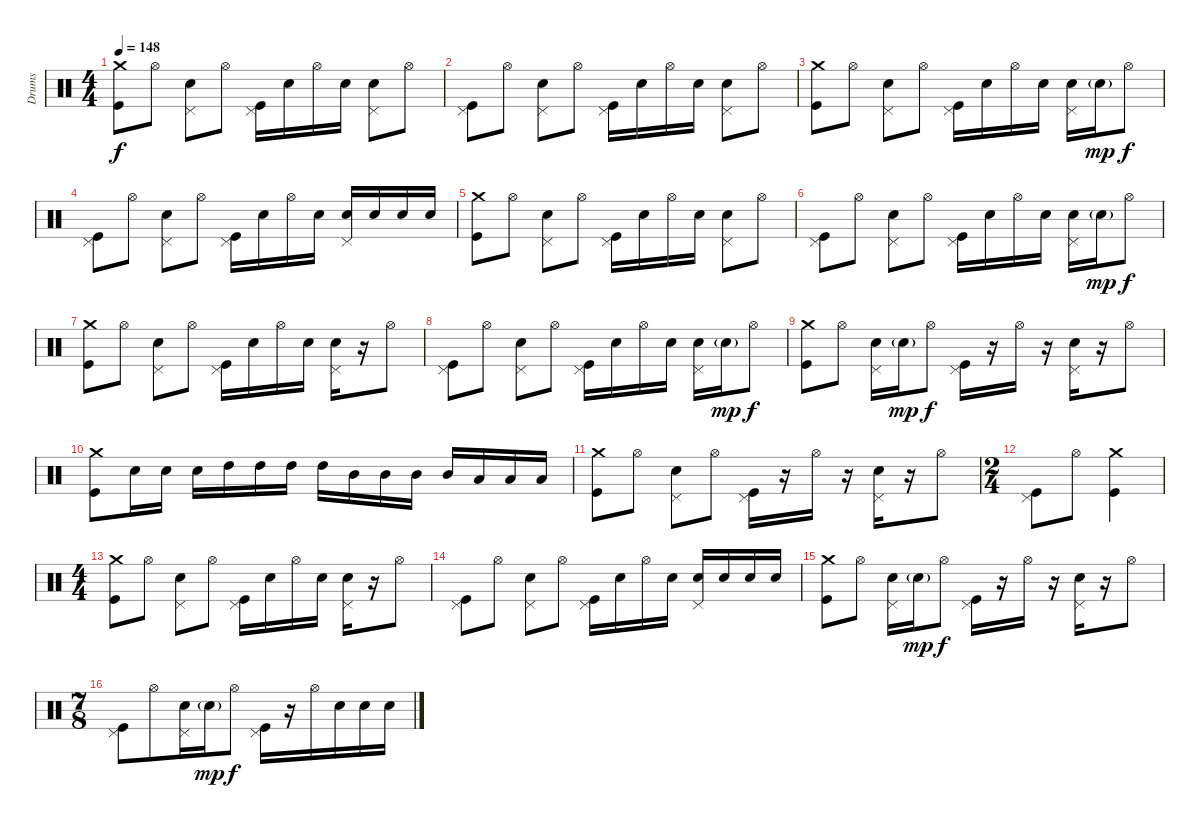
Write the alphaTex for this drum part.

\track ("Drums" "Drums") {instrument percussion}
\staff {score}
\articulation defaults
\ts (4 4)
\tempo 148
\clef neutral
\ks c
("Crash medium (hit)" "Kick (hit)").8{dy f} "Hi-Hat (open)".8 ("Pedal Hi-Hat (hit)" "Electric Snare (hit)").8 "Hi-Hat (open)".8 ("Pedal Hi-Hat (hit)" "Kick (hit)").16 "Electric Snare (hit)".16 "Hi-Hat (open)".16 "Electric Snare (hit)".16 ("Pedal Hi-Hat (hit)" "Electric Snare (hit)").8 "Hi-Hat (open)".8 |
("Pedal Hi-Hat (hit)" "Kick (hit)").8 "Hi-Hat (open)".8 ("Pedal Hi-Hat (hit)" "Electric Snare (hit)").8 "Hi-Hat (open)".8 ("Pedal Hi-Hat (hit)" "Kick (hit)").16 "Electric Snare (hit)".16 "Hi-Hat (open)".16 "Electric Snare (hit)".16 ("Pedal Hi-Hat (hit)" "Electric Snare (hit)").8 "Hi-Hat (open)".8 |
("Crash medium (hit)" "Kick (hit)").8 "Hi-Hat (open)".8 ("Pedal Hi-Hat (hit)" "Electric Snare (hit)").8 "Hi-Hat (open)".8 ("Pedal Hi-Hat (hit)" "Kick (hit)").16 "Electric Snare (hit)".16 "Hi-Hat (open)".16 "Electric Snare (hit)".16 ("Pedal Hi-Hat (hit)" "Electric Snare (hit)").16 "Electric Snare (hit)"{g}.16{dy mp} "Hi-Hat (open)".8{dy f} |
("Pedal Hi-Hat (hit)" "Kick (hit)").8 "Hi-Hat (open)".8 ("Pedal Hi-Hat (hit)" "Electric Snare (hit)").8 "Hi-Hat (open)".8 ("Pedal Hi-Hat (hit)" "Kick (hit)").16 "Electric Snare (hit)".16 "Hi-Hat (open)".16 "Electric Snare (hit)".16 ("Pedal Hi-Hat (hit)" "Electric Snare (hit)").16 "Electric Snare (hit)".16 "Electric Snare (hit)".16 "Electric Snare (hit)".16 |
("Crash medium (hit)" "Kick (hit)").8 "Hi-Hat (open)".8 ("Pedal Hi-Hat (hit)" "Electric Snare (hit)").8 "Hi-Hat (open)".8 ("Pedal Hi-Hat (hit)" "Kick (hit)").16 "Electric Snare (hit)".16 "Hi-Hat (open)".16 "Electric Snare (hit)".16 ("Pedal Hi-Hat (hit)" "Electric Snare (hit)").8 "Hi-Hat (open)".8 |
("Pedal Hi-Hat (hit)" "Kick (hit)").8 "Hi-Hat (open)".8 ("Pedal Hi-Hat (hit)" "Electric Snare (hit)").8 "Hi-Hat (open)".8 ("Pedal Hi-Hat (hit)" "Kick (hit)").16 "Electric Snare (hit)".16 "Hi-Hat (open)".16 "Electric Snare (hit)".16 ("Pedal Hi-Hat (hit)" "Electric Snare (hit)").16 "Electric Snare (hit)"{g}.16{dy mp} "Hi-Hat (open)".8{dy f} |
("Crash medium (hit)" "Kick (hit)").8 "Hi-Hat (open)".8 ("Pedal Hi-Hat (hit)" "Electric Snare (hit)").8 "Hi-Hat (open)".8 ("Pedal Hi-Hat (hit)" "Kick (hit)").16 "Electric Snare (hit)".16 "Hi-Hat (open)".16 "Electric Snare (hit)".16 ("Pedal Hi-Hat (hit)" "Electric Snare (hit)").16 r.16 "Hi-Hat (open)".8 |
("Pedal Hi-Hat (hit)" "Kick (hit)").8 "Hi-Hat (open)".8 ("Pedal Hi-Hat (hit)" "Electric Snare (hit)").8 "Hi-Hat (open)".8 ("Pedal Hi-Hat (hit)" "Kick (hit)").16 "Electric Snare (hit)".16 "Hi-Hat (open)".16 "Electric Snare (hit)".16 ("Pedal Hi-Hat (hit)" "Electric Snare (hit)").16 "Electric Snare (hit)"{g}.16{dy mp} "Hi-Hat (open)".8{dy f} |
("Crash medium (hit)" "Kick (hit)").8 "Hi-Hat (open)".8 ("Pedal Hi-Hat (hit)" "Electric Snare (hit)").16 "Electric Snare (hit)"{g}.16{dy mp} "Hi-Hat (open)".8{dy f} ("Pedal Hi-Hat (hit)" "Kick (hit)").16 r.16 "Hi-Hat (open)".16 r.16 ("Pedal Hi-Hat (hit)" "Electric Snare (hit)").16 r.16 "Hi-Hat (open)".8 |
("Crash medium (hit)" "Kick (hit)").8 "Electric Snare (hit)".16 "Electric Snare (hit)".16 "Electric Snare (hit)".16 "High Tom (hit)".16 "High Tom (hit)".16 "High Tom (hit)".16 "High Tom (hit)".16 "Mid Tom (hit)".16 "Mid Tom (hit)".16 "Mid Tom (hit)".16 "Mid Tom (hit)".16 "Low Tom (hit)".16 "Low Tom (hit)".16 "Low Tom (hit)".16 |
("Crash medium (hit)" "Kick (hit)").8 "Hi-Hat (open)".8 ("Pedal Hi-Hat (hit)" "Electric Snare (hit)").8 "Hi-Hat (open)".8 ("Pedal Hi-Hat (hit)" "Kick (hit)").16 r.16 "Hi-Hat (open)".16 r.16 ("Pedal Hi-Hat (hit)" "Electric Snare (hit)").16 r.16 "Hi-Hat (open)".8 |
\ts (2 4)
("Pedal Hi-Hat (hit)" "Kick (hit)").8 "Hi-Hat (open)".8 ("Crash medium (hit)" "Kick (hit)").4 |
\ts (4 4)
("Crash medium (hit)" "Kick (hit)").8 "Hi-Hat (open)".8 ("Pedal Hi-Hat (hit)" "Electric Snare (hit)").8 "Hi-Hat (open)".8 ("Pedal Hi-Hat (hit)" "Kick (hit)").16 "Electric Snare (hit)".16 "Hi-Hat (open)".16 "Electric Snare (hit)".16 ("Pedal Hi-Hat (hit)" "Electric Snare (hit)").16 r.16 "Hi-Hat (open)".8 |
("Pedal Hi-Hat (hit)" "Kick (hit)").8 "Hi-Hat (open)".8 ("Pedal Hi-Hat (hit)" "Electric Snare (hit)").8 "Hi-Hat (open)".8 ("Pedal Hi-Hat (hit)" "Kick (hit)").16 "Electric Snare (hit)".16 "Hi-Hat (open)".16 "Electric Snare (hit)".16 ("Pedal Hi-Hat (hit)" "Electric Snare (hit)").16 "Electric Snare (hit)".16 "Electric Snare (hit)".16 "Electric Snare (hit)".16 |
("Crash medium (hit)" "Kick (hit)").8 "Hi-Hat (open)".8 ("Pedal Hi-Hat (hit)" "Electric Snare (hit)").16 "Electric Snare (hit)"{g}.16{dy mp} "Hi-Hat (open)".8{dy f} ("Pedal Hi-Hat (hit)" "Kick (hit)").16 r.16 "Hi-Hat (open)".16 r.16 ("Pedal Hi-Hat (hit)" "Electric Snare (hit)").16 r.16 "Hi-Hat (open)".8 |
\ts (7 8)
("Pedal Hi-Hat (hit)" "Kick (hit)").8 "Hi-Hat (open)".8 ("Pedal Hi-Hat (hit)" "Electric Snare (hit)").16 "Electric Snare (hit)"{g}.16{dy mp} "Hi-Hat (open)".8{dy f} ("Pedal Hi-Hat (hit)" "Kick (hit)").16 r.16 "Hi-Hat (open)".16 "Electric Snare (hit)".16 "Electric Snare (hit)".16 "Electric Snare (hit)".16
